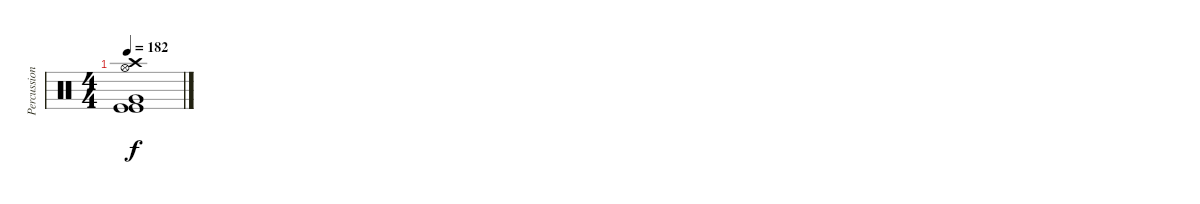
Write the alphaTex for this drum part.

\track ("Percussions" "Percussion") {instrument percussion}
\staff {score}
\articulation defaults
\ts (4 4)
\tempo 182
\clef neutral
\ks c
("Kick (hit)" "Kick (hit)" "Very Low Tom (hit)" "Crash high (hit)" "Hi-Hat (open)").1{dy f}
